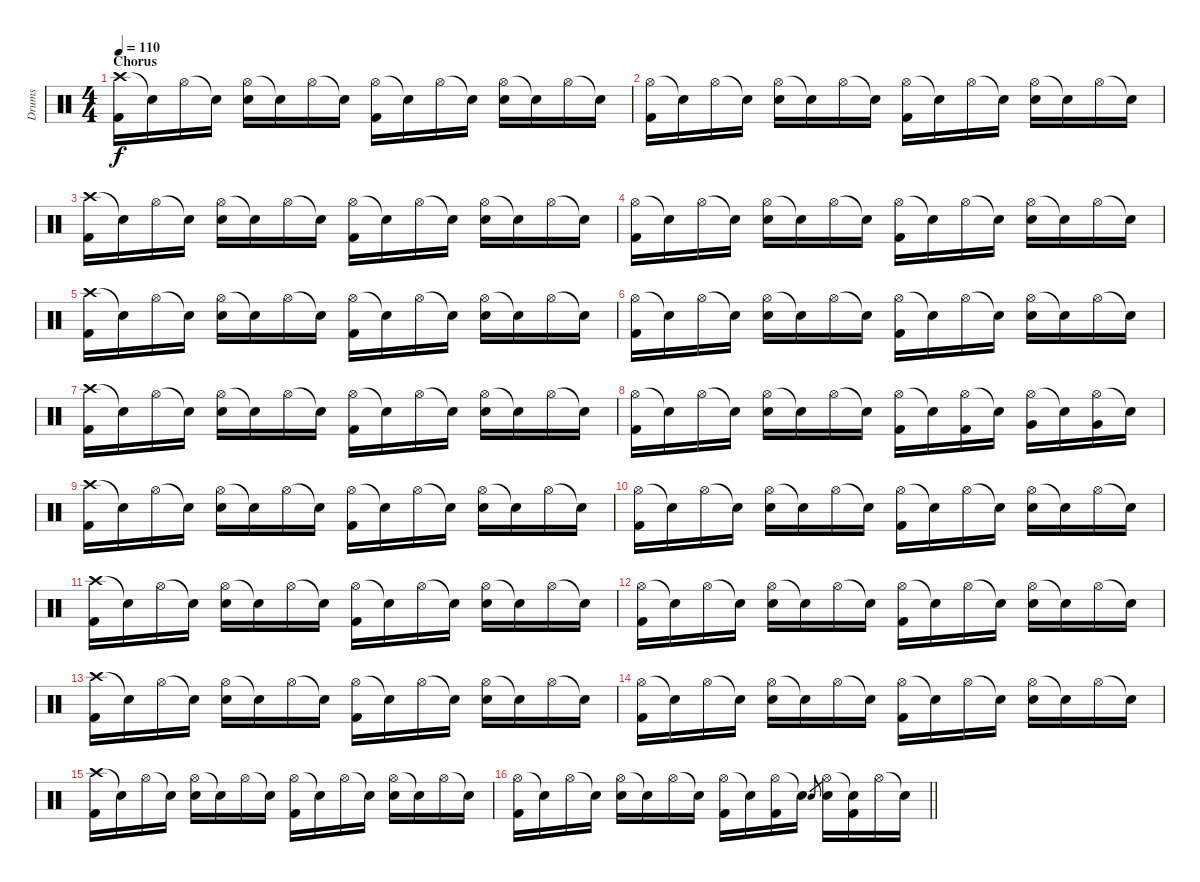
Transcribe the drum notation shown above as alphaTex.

\track ("Drums" "Drums") {instrument percussion}
\staff {score}
\articulation defaults
\ts (4 4)
\section ("" "Chorus")
\tempo 110
\clef neutral
\ks c
("Crash high (hit)" "Kick (hit) 2").16{dy f} "Snare (hit)"{t}.16 "Hi-Hat (open)".16 "Snare (hit)"{t}.16 ("Hi-Hat (open)" "Electric Snare (hit)").16 "Snare (hit)"{t}.16 "Hi-Hat (open)".16 "Snare (hit)"{t}.16 ("Hi-Hat (open)" "Kick (hit) 2").16 "Snare (hit)"{t}.16 "Hi-Hat (open)".16 "Snare (hit)"{t}.16 ("Hi-Hat (open)" "Electric Snare (hit)").16 "Snare (hit)"{t}.16 "Hi-Hat (open)".16 "Snare (hit)"{t}.16 |
("Hi-Hat (open)" "Kick (hit) 2").16 "Snare (hit)"{t}.16 "Hi-Hat (open)".16 "Snare (hit)"{t}.16 ("Hi-Hat (open)" "Electric Snare (hit)").16 "Snare (hit)"{t}.16 "Hi-Hat (open)".16 "Snare (hit)"{t}.16 ("Hi-Hat (open)" "Kick (hit) 2").16 "Snare (hit)"{t}.16 "Hi-Hat (open)".16 "Snare (hit)"{t}.16 ("Hi-Hat (open)" "Electric Snare (hit)").16 "Snare (hit)"{t}.16 "Hi-Hat (open)".16 "Snare (hit)"{t}.16 |
("Crash high (hit)" "Kick (hit) 2").16 "Snare (hit)"{t}.16 "Hi-Hat (open)".16 "Snare (hit)"{t}.16 ("Hi-Hat (open)" "Electric Snare (hit)").16 "Snare (hit)"{t}.16 "Hi-Hat (open)".16 "Snare (hit)"{t}.16 ("Hi-Hat (open)" "Kick (hit) 2").16 "Snare (hit)"{t}.16 "Hi-Hat (open)".16 "Snare (hit)"{t}.16 ("Hi-Hat (open)" "Electric Snare (hit)").16 "Snare (hit)"{t}.16 "Hi-Hat (open)".16 "Snare (hit)"{t}.16 |
("Hi-Hat (open)" "Kick (hit) 2").16 "Snare (hit)"{t}.16 "Hi-Hat (open)".16 "Snare (hit)"{t}.16 ("Hi-Hat (open)" "Electric Snare (hit)").16 "Snare (hit)"{t}.16 "Hi-Hat (open)".16 "Snare (hit)"{t}.16 ("Hi-Hat (open)" "Kick (hit) 2").16 "Snare (hit)"{t}.16 "Hi-Hat (open)".16 "Snare (hit)"{t}.16 ("Hi-Hat (open)" "Electric Snare (hit)").16 "Snare (hit)"{t}.16 "Hi-Hat (open)".16 "Snare (hit)"{t}.16 |
("Crash high (hit)" "Kick (hit) 2").16 "Snare (hit)"{t}.16 "Hi-Hat (open)".16 "Snare (hit)"{t}.16 ("Hi-Hat (open)" "Electric Snare (hit)").16 "Snare (hit)"{t}.16 "Hi-Hat (open)".16 "Snare (hit)"{t}.16 ("Hi-Hat (open)" "Kick (hit) 2").16 "Snare (hit)"{t}.16 "Hi-Hat (open)".16 "Snare (hit)"{t}.16 ("Hi-Hat (open)" "Electric Snare (hit)").16 "Snare (hit)"{t}.16 "Hi-Hat (open)".16 "Snare (hit)"{t}.16 |
("Hi-Hat (open)" "Kick (hit) 2").16 "Snare (hit)"{t}.16 "Hi-Hat (open)".16 "Snare (hit)"{t}.16 ("Hi-Hat (open)" "Electric Snare (hit)").16 "Snare (hit)"{t}.16 "Hi-Hat (open)".16 "Snare (hit)"{t}.16 ("Hi-Hat (open)" "Kick (hit) 2").16 "Snare (hit)"{t}.16 "Hi-Hat (open)".16 "Snare (hit)"{t}.16 ("Hi-Hat (open)" "Electric Snare (hit)").16 "Snare (hit)"{t}.16 "Hi-Hat (open)".16 "Snare (hit)"{t}.16 |
("Crash high (hit)" "Kick (hit) 2").16 "Snare (hit)"{t}.16 "Hi-Hat (open)".16 "Snare (hit)"{t}.16 ("Hi-Hat (open)" "Electric Snare (hit)").16 "Snare (hit)"{t}.16 "Hi-Hat (open)".16 "Snare (hit)"{t}.16 ("Hi-Hat (open)" "Kick (hit) 2").16 "Snare (hit)"{t}.16 "Hi-Hat (open)".16 "Snare (hit)"{t}.16 ("Hi-Hat (open)" "Electric Snare (hit)").16 "Snare (hit)"{t}.16 "Hi-Hat (open)".16 "Snare (hit)"{t}.16 |
("Hi-Hat (open)" "Kick (hit) 2").16 "Snare (hit)"{t}.16 "Hi-Hat (open)".16 "Snare (hit)"{t}.16 ("Hi-Hat (open)" "Electric Snare (hit)").16 "Snare (hit)"{t}.16 "Hi-Hat (open)".16 "Snare (hit)"{t}.16 ("Hi-Hat (open)" "Kick (hit) 2").16 "Snare (hit)"{t}.16 ("Hi-Hat (open)" "Kick (hit) 2").16 "Snare (hit)"{t}.16 ("Hi-Hat (open)" "Very Low Tom (hit)").16 "Snare (hit)"{t}.16 ("Hi-Hat (open)" "Very Low Tom (hit)").16 "Snare (hit)"{t}.16 |
("Crash high (hit)" "Kick (hit) 2").16 "Snare (hit)"{t}.16 "Hi-Hat (open)".16 "Snare (hit)"{t}.16 ("Hi-Hat (open)" "Electric Snare (hit)").16 "Snare (hit)"{t}.16 "Hi-Hat (open)".16 "Snare (hit)"{t}.16 ("Hi-Hat (open)" "Kick (hit) 2").16 "Snare (hit)"{t}.16 "Hi-Hat (open)".16 "Snare (hit)"{t}.16 ("Hi-Hat (open)" "Electric Snare (hit)").16 "Snare (hit)"{t}.16 "Hi-Hat (open)".16 "Snare (hit)"{t}.16 |
("Hi-Hat (open)" "Kick (hit) 2").16 "Snare (hit)"{t}.16 "Hi-Hat (open)".16 "Snare (hit)"{t}.16 ("Hi-Hat (open)" "Electric Snare (hit)").16 "Snare (hit)"{t}.16 "Hi-Hat (open)".16 "Snare (hit)"{t}.16 ("Hi-Hat (open)" "Kick (hit) 2").16 "Snare (hit)"{t}.16 "Hi-Hat (open)".16 "Snare (hit)"{t}.16 ("Hi-Hat (open)" "Electric Snare (hit)").16 "Snare (hit)"{t}.16 "Hi-Hat (open)".16 "Snare (hit)"{t}.16 |
("Crash high (hit)" "Kick (hit) 2").16 "Snare (hit)"{t}.16 "Hi-Hat (open)".16 "Snare (hit)"{t}.16 ("Hi-Hat (open)" "Electric Snare (hit)").16 "Snare (hit)"{t}.16 "Hi-Hat (open)".16 "Snare (hit)"{t}.16 ("Hi-Hat (open)" "Kick (hit) 2").16 "Snare (hit)"{t}.16 "Hi-Hat (open)".16 "Snare (hit)"{t}.16 ("Hi-Hat (open)" "Electric Snare (hit)").16 "Snare (hit)"{t}.16 "Hi-Hat (open)".16 "Snare (hit)"{t}.16 |
("Hi-Hat (open)" "Kick (hit) 2").16 "Snare (hit)"{t}.16 "Hi-Hat (open)".16 "Snare (hit)"{t}.16 ("Hi-Hat (open)" "Electric Snare (hit)").16 "Snare (hit)"{t}.16 "Hi-Hat (open)".16 "Snare (hit)"{t}.16 ("Hi-Hat (open)" "Kick (hit) 2").16 "Snare (hit)"{t}.16 "Hi-Hat (open)".16 "Snare (hit)"{t}.16 ("Hi-Hat (open)" "Electric Snare (hit)").16 "Snare (hit)"{t}.16 "Hi-Hat (open)".16 "Snare (hit)"{t}.16 |
("Crash high (hit)" "Kick (hit) 2").16 "Snare (hit)"{t}.16 "Hi-Hat (open)".16 "Snare (hit)"{t}.16 ("Hi-Hat (open)" "Electric Snare (hit)").16 "Snare (hit)"{t}.16 "Hi-Hat (open)".16 "Snare (hit)"{t}.16 ("Hi-Hat (open)" "Kick (hit) 2").16 "Snare (hit)"{t}.16 "Hi-Hat (open)".16 "Snare (hit)"{t}.16 ("Hi-Hat (open)" "Electric Snare (hit)").16 "Snare (hit)"{t}.16 "Hi-Hat (open)".16 "Snare (hit)"{t}.16 |
("Hi-Hat (open)" "Kick (hit) 2").16 "Snare (hit)"{t}.16 "Hi-Hat (open)".16 "Snare (hit)"{t}.16 ("Hi-Hat (open)" "Electric Snare (hit)").16 "Snare (hit)"{t}.16 "Hi-Hat (open)".16 "Snare (hit)"{t}.16 ("Hi-Hat (open)" "Kick (hit) 2").16 "Snare (hit)"{t}.16 "Hi-Hat (open)".16 "Snare (hit)"{t}.16 ("Hi-Hat (open)" "Electric Snare (hit)").16 "Snare (hit)"{t}.16 "Hi-Hat (open)".16 "Snare (hit)"{t}.16 |
("Crash high (hit)" "Kick (hit) 2").16 "Snare (hit)"{t}.16 "Hi-Hat (open)".16 "Snare (hit)"{t}.16 ("Hi-Hat (open)" "Electric Snare (hit)").16 "Snare (hit)"{t}.16 "Hi-Hat (open)".16 "Snare (hit)"{t}.16 ("Hi-Hat (open)" "Kick (hit) 2").16 "Snare (hit)"{t}.16 "Hi-Hat (open)".16 "Snare (hit)"{t}.16 ("Hi-Hat (open)" "Electric Snare (hit)").16 "Snare (hit)"{t}.16 "Hi-Hat (open)".16 "Snare (hit)"{t}.16 |
\barLineRight lightlight
("Hi-Hat (open)" "Kick (hit) 2").16 "Snare (hit)"{t}.16 "Hi-Hat (open)".16 "Snare (hit)"{t}.16 ("Hi-Hat (open)" "Electric Snare (hit)").16 "Snare (hit)"{t}.16 "Hi-Hat (open)".16 "Snare (hit)"{t}.16 ("Hi-Hat (open)" "Kick (hit) 2").16 "Snare (hit)"{t}.16 ("Hi-Hat (open)" "Kick (hit) 2").16 "Snare (hit)"{t}.16 "Electric Snare (hit)".8{gr} ("Hi-Hat (open)" "Electric Snare (hit)").16 ("Snare (hit)"{t} "Kick (hit) 2").16 "Hi-Hat (open)".16 "Snare (hit)"{t}.16
